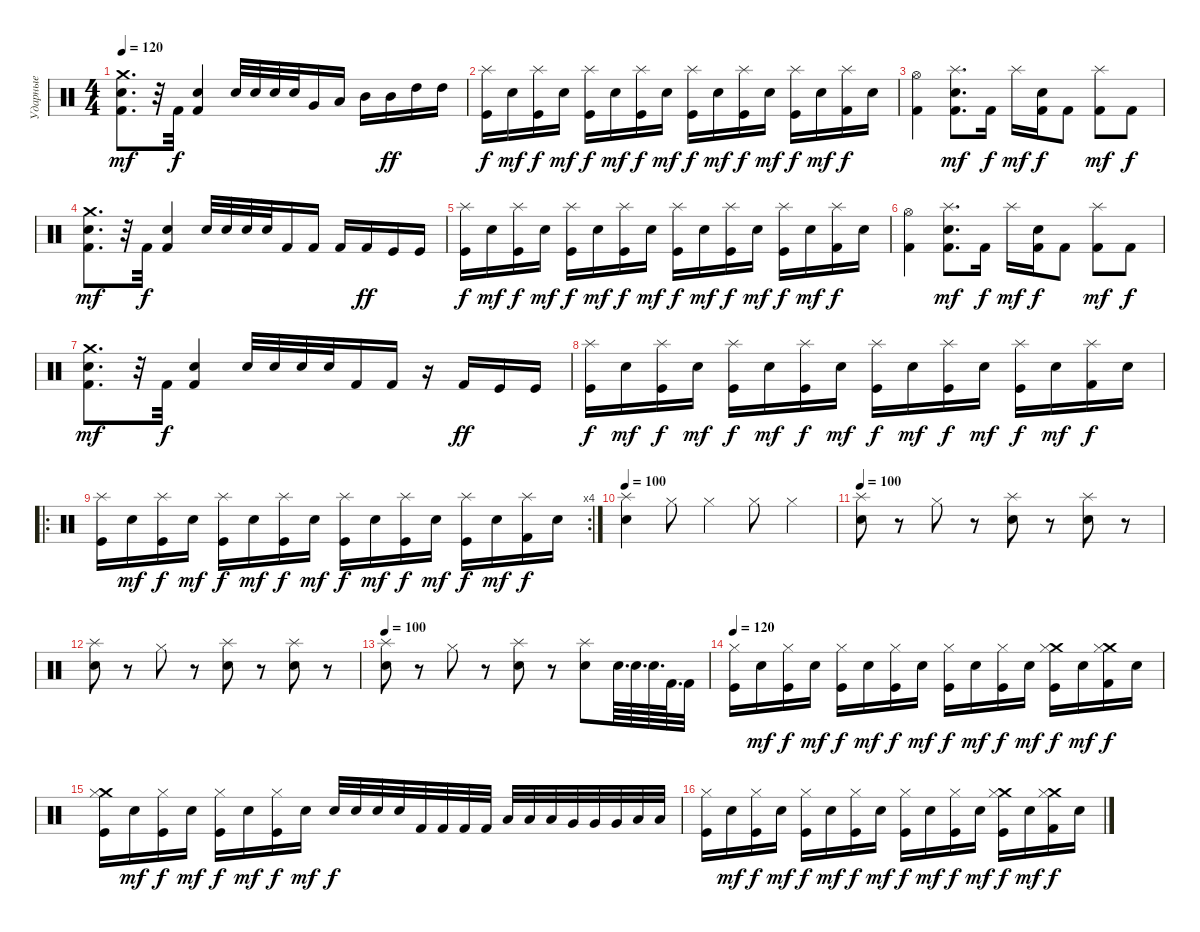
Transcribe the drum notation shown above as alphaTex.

\track ("Ударные" "Ударные") {instrument percussion}
\staff {score}
\articulation defaults
\ts (4 4)
\tempo 120
\clef neutral
\ks c
("Crash medium (hit)" "Electric Snare (hit)" "Kick (hit) 2").8{d dy mf} r.32 "Kick (hit) 2".32{dy f} ("Electric Snare (hit)" "Kick (hit) 2").4 "Electric Snare (hit)".32 "Electric Snare (hit)".32 "Snare (hit) 2".32 "Snare (hit) 2".32 "Very Low Tom (hit)".16 "Low Tom (hit)".16 "Mid Tom (hit)".16 "Mid Tom (hit)".16{dy ff} "High Tom (hit)".16 "High Tom (hit)".16 |
("Splash (hit)" "Kick (hit)").16{dy f} "Electric Snare (hit)".16{dy mf} ("Splash (hit)" "Kick (hit)").16{dy f} "Electric Snare (hit)".16{dy mf} ("Splash (hit)" "Kick (hit)").16{dy f} "Electric Snare (hit)".16{dy mf} ("Splash (hit)" "Kick (hit)").16{dy f} "Electric Snare (hit)".16{dy mf} ("Splash (hit)" "Kick (hit)").16{dy f} "Electric Snare (hit)".16{dy mf} ("Splash (hit)" "Kick (hit)").16{dy f} "Electric Snare (hit)".16{dy mf} ("Splash (hit)" "Kick (hit)").16{dy f} "Electric Snare (hit)".16{dy mf} ("Splash (hit)" "Kick (hit) 2").16{dy f} "Electric Snare (hit)".16 |
("Hi-Hat (open)" "Kick (hit) 2").4 ("Splash (hit)" "Electric Snare (hit)" "Kick (hit) 2").8{d dy mf} "Kick (hit) 2".16{dy f} "Splash (hit)".16{dy mf} ("Electric Snare (hit)" "Kick (hit) 2").16{dy f} "Kick (hit) 2".8 ("Splash (hit)" "Kick (hit) 2").8{dy mf} "Kick (hit) 2".8{dy f} |
("Crash medium (hit)" "Electric Snare (hit)" "Kick (hit) 2").8{d dy mf} r.32 "Kick (hit) 2".32{dy f} ("Electric Snare (hit)" "Kick (hit) 2").4 "Electric Snare (hit)".32 "Electric Snare (hit)".32 "Snare (hit) 2".32 "Snare (hit) 2".32 "Kick (hit) 2".16 "Kick (hit) 2".16 "Kick (hit) 2".16 "Kick (hit) 2".16{dy ff} "Kick (hit)".16 "Kick (hit)".16 |
("Splash (hit)" "Kick (hit)").16{dy f} "Electric Snare (hit)".16{dy mf} ("Splash (hit)" "Kick (hit)").16{dy f} "Electric Snare (hit)".16{dy mf} ("Splash (hit)" "Kick (hit)").16{dy f} "Electric Snare (hit)".16{dy mf} ("Splash (hit)" "Kick (hit)").16{dy f} "Electric Snare (hit)".16{dy mf} ("Splash (hit)" "Kick (hit)").16{dy f} "Electric Snare (hit)".16{dy mf} ("Splash (hit)" "Kick (hit)").16{dy f} "Electric Snare (hit)".16{dy mf} ("Splash (hit)" "Kick (hit)").16{dy f} "Electric Snare (hit)".16{dy mf} ("Splash (hit)" "Kick (hit) 2").16{dy f} "Electric Snare (hit)".16 |
("Hi-Hat (open)" "Kick (hit) 2").4 ("Splash (hit)" "Electric Snare (hit)" "Kick (hit) 2").8{d dy mf} "Kick (hit) 2".16{dy f} "Splash (hit)".16{dy mf} ("Electric Snare (hit)" "Kick (hit) 2").16{dy f} "Kick (hit) 2".8 ("Splash (hit)" "Kick (hit) 2").8{dy mf} "Kick (hit) 2".8{dy f} |
("Crash medium (hit)" "Electric Snare (hit)" "Kick (hit) 2").8{d dy mf} r.32 "Kick (hit) 2".32{dy f} ("Electric Snare (hit)" "Kick (hit) 2").4 "Electric Snare (hit)".32 "Electric Snare (hit)".32 "Snare (hit) 2".32 "Snare (hit) 2".32 "Kick (hit) 2".16 "Kick (hit) 2".16 r.16 "Kick (hit) 2".16{dy ff} "Kick (hit)".16 "Kick (hit)".16 |
("Splash (hit)" "Kick (hit)").16{dy f} "Electric Snare (hit)".16{dy mf} ("Splash (hit)" "Kick (hit)").16{dy f} "Electric Snare (hit)".16{dy mf} ("Splash (hit)" "Kick (hit)").16{dy f} "Electric Snare (hit)".16{dy mf} ("Splash (hit)" "Kick (hit)").16{dy f} "Electric Snare (hit)".16{dy mf} ("Splash (hit)" "Kick (hit)").16{dy f} "Electric Snare (hit)".16{dy mf} ("Splash (hit)" "Kick (hit)").16{dy f} "Electric Snare (hit)".16{dy mf} ("Splash (hit)" "Kick (hit)").16{dy f} "Electric Snare (hit)".16{dy mf} ("Splash (hit)" "Kick (hit) 2").16{dy f} "Electric Snare (hit)".16 |
\ro
\rc 4
("Splash (hit)" "Kick (hit)").16 "Electric Snare (hit)".16{dy mf} ("Splash (hit)" "Kick (hit)").16{dy f} "Electric Snare (hit)".16{dy mf} ("Splash (hit)" "Kick (hit)").16{dy f} "Electric Snare (hit)".16{dy mf} ("Splash (hit)" "Kick (hit)").16{dy f} "Electric Snare (hit)".16{dy mf} ("Splash (hit)" "Kick (hit)").16{dy f} "Electric Snare (hit)".16{dy mf} ("Splash (hit)" "Kick (hit)").16{dy f} "Electric Snare (hit)".16{dy mf} ("Splash (hit)" "Kick (hit)").16{dy f} "Electric Snare (hit)".16{dy mf} ("Splash (hit)" "Kick (hit) 2").16{dy f} "Electric Snare (hit)".16 |
\tempo 100
("Splash (hit)" "Electric Snare (hit)").4 "Hi-Hat (closed)".8 "Hi-Hat (closed)".4 "Hi-Hat (closed)".8 "Hi-Hat (closed)".4 |
\tempo 100
("Splash (hit)" "Electric Snare (hit)").8 r.8 "Hi-Hat (closed)".8 r.8 ("Splash (hit)" "Electric Snare (hit)").8 r.8 ("Splash (hit)" "Electric Snare (hit)").8 r.8 |
("Splash (hit)" "Electric Snare (hit)").8 r.8 "Hi-Hat (closed)".8 r.8 ("Splash (hit)" "Electric Snare (hit)").8 r.8 ("Splash (hit)" "Electric Snare (hit)").8 r.8 |
\tempo 100
("Splash (hit)" "Electric Snare (hit)").8 r.8 "Hi-Hat (closed)".8 r.8 ("Splash (hit)" "Electric Snare (hit)").8 r.8 ("Splash (hit)" "Electric Snare (hit)").8 "Electric Snare (hit)".64{d} "Electric Snare (hit)".64{d} "Electric Snare (hit)".64{d} "Kick (hit) 2".64{d} "Kick (hit) 2".32 |
\tempo 120
("Hi-Hat (closed)" "Kick (hit)").16 "Electric Snare (hit)".16{dy mf} ("Hi-Hat (closed)" "Kick (hit)").16{dy f} "Electric Snare (hit)".16{dy mf} ("Hi-Hat (closed)" "Kick (hit)").16{dy f} "Electric Snare (hit)".16{dy mf} ("Hi-Hat (closed)" "Kick (hit)").16{dy f} "Electric Snare (hit)".16{dy mf} ("Hi-Hat (closed)" "Kick (hit)").16{dy f} "Electric Snare (hit)".16{dy mf} ("Hi-Hat (closed)" "Kick (hit)").16{dy f} "Electric Snare (hit)".16{dy mf} ("Crash medium (hit)" "Hi-Hat (closed)" "Kick (hit)").16{dy f} "Electric Snare (hit)".16{dy mf} ("Crash medium (hit)" "Hi-Hat (closed)" "Kick (hit) 2").16{dy f} "Electric Snare (hit)".16 |
("Crash medium (hit)" "Hi-Hat (closed)" "Kick (hit)").16 "Electric Snare (hit)".16{dy mf} ("Hi-Hat (closed)" "Kick (hit)").16{dy f} "Electric Snare (hit)".16{dy mf} ("Hi-Hat (closed)" "Kick (hit)").16{dy f} "Electric Snare (hit)".16{dy mf} ("Hi-Hat (closed)" "Kick (hit)").16{dy f} "Electric Snare (hit)".16{dy mf} "Electric Snare (hit)".32{dy f} "Electric Snare (hit)".32 "Electric Snare (hit)".32 "Electric Snare (hit)".32 "Kick (hit) 2".32 "Kick (hit) 2".32 "Kick (hit) 2".32 "Kick (hit) 2".32 "Low Tom (hit)".32 "Low Tom (hit)".32 "Low Tom (hit)".32 "Very Low Tom (hit)".32 "Very Low Tom (hit)".32 "Very Low Tom (hit)".32 "Low Floor Tom (hit)".32 "Low Floor Tom (hit)".32 |
("Hi-Hat (closed)" "Kick (hit)").16 "Electric Snare (hit)".16{dy mf} ("Hi-Hat (closed)" "Kick (hit)").16{dy f} "Electric Snare (hit)".16{dy mf} ("Hi-Hat (closed)" "Kick (hit)").16{dy f} "Electric Snare (hit)".16{dy mf} ("Hi-Hat (closed)" "Kick (hit)").16{dy f} "Electric Snare (hit)".16{dy mf} ("Hi-Hat (closed)" "Kick (hit)").16{dy f} "Electric Snare (hit)".16{dy mf} ("Hi-Hat (closed)" "Kick (hit)").16{dy f} "Electric Snare (hit)".16{dy mf} ("Crash medium (hit)" "Hi-Hat (closed)" "Kick (hit)").16{dy f} "Electric Snare (hit)".16{dy mf} ("Crash medium (hit)" "Hi-Hat (closed)" "Kick (hit) 2").16{dy f} "Electric Snare (hit)".16
